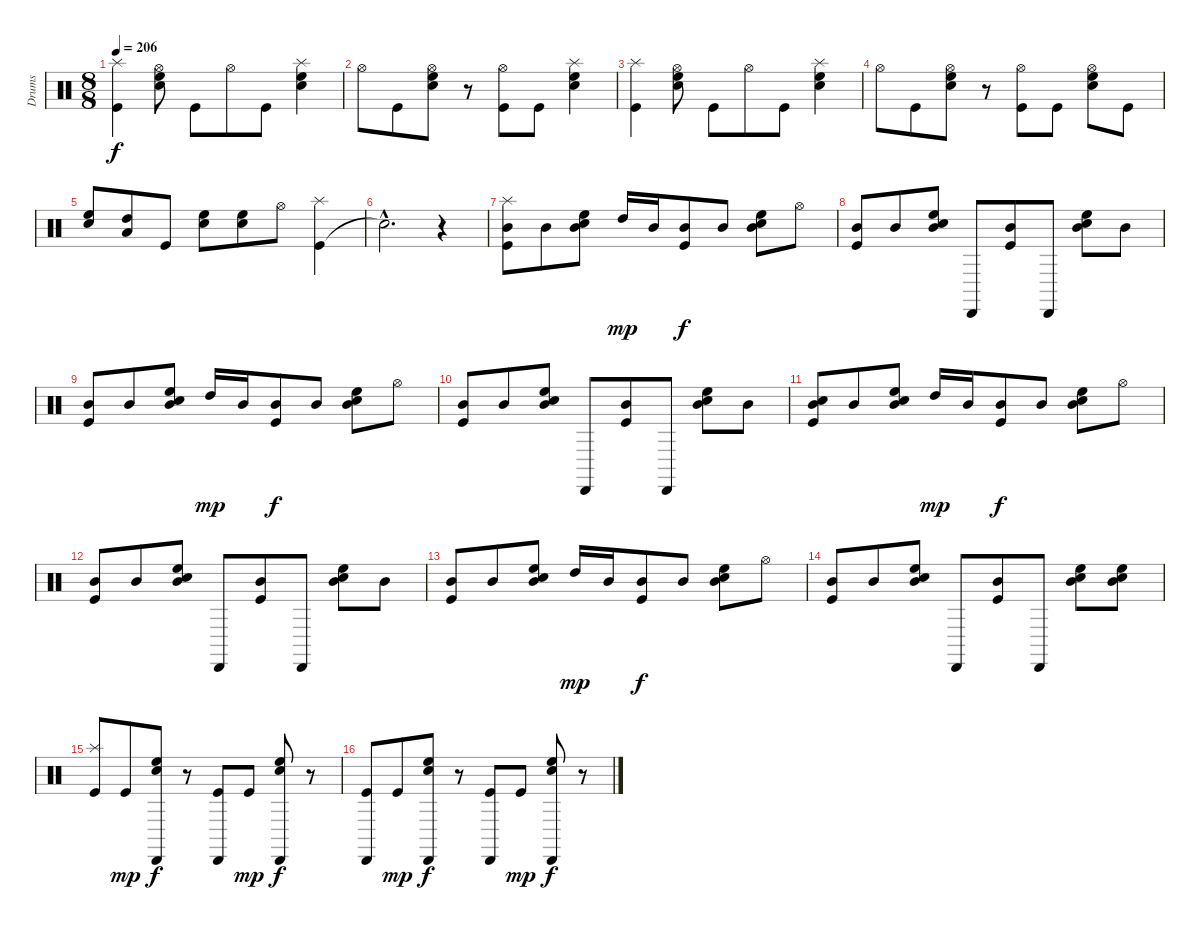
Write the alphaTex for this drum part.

\track ("Drums" "Drums") {instrument percussion}
\staff {score}
\articulation defaults
\ts (8 8)
\tempo 206
\clef neutral
\ks c
("Splash (hit)" "Kick (hit)").4{dy f} ("Hi-Hat (open)" "High Floor Tom (hit)" "Electric Snare (hit)").8 "Kick (hit)".8 "Hi-Hat (open)".8 "Kick (hit)".8 ("Splash (hit)" "High Floor Tom (hit)" "Electric Snare (hit)").4 |
"Hi-Hat (open)".8 "Kick (hit)".8 ("Hi-Hat (open)" "High Floor Tom (hit)" "Electric Snare (hit)").8 r.8 ("Hi-Hat (open)" "Kick (hit)").8 "Kick (hit)".8 ("Splash (hit)" "High Floor Tom (hit)" "Electric Snare (hit)").4 |
("Splash (hit)" "Kick (hit)").4 ("Hi-Hat (open)" "High Floor Tom (hit)" "Electric Snare (hit)").8 "Kick (hit)".8 "Hi-Hat (open)".8 "Kick (hit)".8 ("Splash (hit)" "High Floor Tom (hit)" "Electric Snare (hit)").4 |
"Hi-Hat (open)".8 "Kick (hit)".8 ("Hi-Hat (open)" "High Floor Tom (hit)" "Electric Snare (hit)").8 r.8 ("Hi-Hat (open)" "Kick (hit)").8 "Kick (hit)".8 ("Hi-Hat (open)" "High Floor Tom (hit)" "Electric Snare (hit)").8 "Kick (hit)".8 |
("High Floor Tom (hit)" "Electric Snare (hit)").8 ("High Tom (hit)" "Low Tom (hit)").8 "Kick (hit)".8 ("High Floor Tom (hit)" "Electric Snare (hit)").8 ("High Floor Tom (hit)" "Electric Snare (hit)").8 "Hi-Hat (open)".8 ("Kick (hit)" "Splash (hit)").4 |
"Snare (hit)"{hac t}.2{d} r.4 |
("Splash (hit)" "Mid Tom (hit)" "Kick (hit)").8 "Mid Tom (hit)".8 ("Mid Tom (hit)" "High Floor Tom (hit)" "Electric Snare (hit)").8 "High Tom (hit)".16{dy mp} "Mid Tom (hit)".16 ("Mid Tom (hit)" "Kick (hit)").8{dy f} "Mid Tom (hit)".8 ("Mid Tom (hit)" "High Floor Tom (hit)" "Electric Snare (hit)").8 "Hi-Hat (open)".8 |
("Mid Tom (hit)" "Kick (hit)").8 "Mid Tom (hit)".8 ("Mid Tom (hit)" "High Floor Tom (hit)" "Electric Snare (hit)").8 "Cabasa (hit)".8 ("Mid Tom (hit)" "Kick (hit)").8 "Cabasa (hit)".8 ("Mid Tom (hit)" "High Floor Tom (hit)" "Electric Snare (hit)").8 "Mid Tom (hit)".8 |
("Mid Tom (hit)" "Kick (hit)").8 "Mid Tom (hit)".8 ("Mid Tom (hit)" "High Floor Tom (hit)" "Electric Snare (hit)").8 "High Tom (hit)".16{dy mp} "Mid Tom (hit)".16 ("Mid Tom (hit)" "Kick (hit)").8{dy f} "Mid Tom (hit)".8 ("Mid Tom (hit)" "High Floor Tom (hit)" "Electric Snare (hit)").8 "Hi-Hat (open)".8 |
("Mid Tom (hit)" "Kick (hit)").8 "Mid Tom (hit)".8 ("Mid Tom (hit)" "High Floor Tom (hit)" "Electric Snare (hit)").8 "Cabasa (hit)".8 ("Mid Tom (hit)" "Kick (hit)").8 "Cabasa (hit)".8 ("Mid Tom (hit)" "High Floor Tom (hit)" "Electric Snare (hit)").8 "Mid Tom (hit)".8 |
("Electric Snare (hit)" "Mid Tom (hit)" "Kick (hit)").8 "Mid Tom (hit)".8 ("Mid Tom (hit)" "High Floor Tom (hit)" "Electric Snare (hit)").8 "High Tom (hit)".16{dy mp} "Mid Tom (hit)".16 ("Mid Tom (hit)" "Kick (hit)").8{dy f} "Mid Tom (hit)".8 ("Mid Tom (hit)" "High Floor Tom (hit)" "Electric Snare (hit)").8 "Hi-Hat (open)".8 |
("Mid Tom (hit)" "Kick (hit)").8 "Mid Tom (hit)".8 ("Mid Tom (hit)" "High Floor Tom (hit)" "Electric Snare (hit)").8 "Cabasa (hit)".8 ("Mid Tom (hit)" "Kick (hit)").8 "Cabasa (hit)".8 ("Mid Tom (hit)" "High Floor Tom (hit)" "Electric Snare (hit)").8 "Mid Tom (hit)".8 |
("Mid Tom (hit)" "Kick (hit)").8 "Mid Tom (hit)".8 ("Mid Tom (hit)" "High Floor Tom (hit)" "Electric Snare (hit)").8 "High Tom (hit)".16{dy mp} "Mid Tom (hit)".16 ("Mid Tom (hit)" "Kick (hit)").8{dy f} "Mid Tom (hit)".8 ("Mid Tom (hit)" "High Floor Tom (hit)" "Electric Snare (hit)").8 "Hi-Hat (open)".8 |
("Mid Tom (hit)" "Kick (hit)").8 "Mid Tom (hit)".8 ("Mid Tom (hit)" "High Floor Tom (hit)" "Electric Snare (hit)").8 "Cabasa (hit)".8 ("Mid Tom (hit)" "Kick (hit)").8 "Cabasa (hit)".8 ("Mid Tom (hit)" "High Floor Tom (hit)" "Electric Snare (hit)").8 ("High Floor Tom (hit)" "Electric Snare (hit)" "Mid Tom (hit)").8 |
("Splash (hit)" "Kick (hit)").8 "Kick (hit)".8{dy mp} ("Cabasa (hit)" "High Floor Tom (hit)" "Electric Snare (hit)").8{dy f} r.8 ("Kick (hit)" "Cabasa (hit)").8 "Kick (hit)".8{dy mp} ("Cabasa (hit)" "High Floor Tom (hit)" "Electric Snare (hit)").8{dy f} r.8 |
("Kick (hit)" "Cabasa (hit)").8 "Kick (hit)".8{dy mp} ("Cabasa (hit)" "High Floor Tom (hit)" "Electric Snare (hit)").8{dy f} r.8 ("Kick (hit)" "Cabasa (hit)").8 "Kick (hit)".8{dy mp} ("Cabasa (hit)" "High Floor Tom (hit)" "Electric Snare (hit)").8{dy f} r.8
